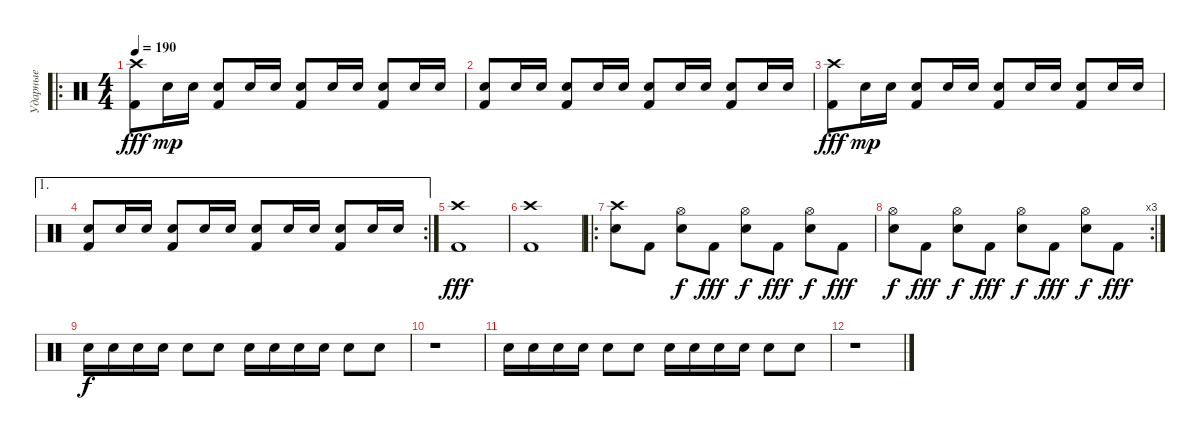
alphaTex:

\track ("Ударные" "Ударные") {instrument percussion}
\staff
\articulation defaults
\ro
\ts (4 4)
\tempo 190
\clef neutral
\ks c
("Kick (hit) 2" "Crash high (hit)").8{dy fff} "Snare (hit) 2".16{dy mp} "Snare (hit) 2".16 ("Kick (hit) 2" "Snare (hit) 2").8 "Snare (hit) 2".16 "Snare (hit) 2".16 ("Kick (hit) 2" "Snare (hit) 2").8 "Snare (hit) 2".16 "Snare (hit) 2".16 ("Kick (hit) 2" "Snare (hit) 2").8 "Snare (hit) 2".16 "Snare (hit) 2".16 |
("Kick (hit) 2" "Snare (hit) 2").8 "Snare (hit) 2".16 "Snare (hit) 2".16 ("Kick (hit) 2" "Snare (hit) 2").8 "Snare (hit) 2".16 "Snare (hit) 2".16 ("Kick (hit) 2" "Snare (hit) 2").8 "Snare (hit) 2".16 "Snare (hit) 2".16 ("Kick (hit) 2" "Snare (hit) 2").8 "Snare (hit) 2".16 "Snare (hit) 2".16 |
("Kick (hit) 2" "Crash high (hit)").8{dy fff} "Snare (hit) 2".16{dy mp} "Snare (hit) 2".16 ("Kick (hit) 2" "Snare (hit) 2").8 "Snare (hit) 2".16 "Snare (hit) 2".16 ("Kick (hit) 2" "Snare (hit) 2").8 "Snare (hit) 2".16 "Snare (hit) 2".16 ("Kick (hit) 2" "Snare (hit) 2").8 "Snare (hit) 2".16 "Snare (hit) 2".16 |
\ae 1
\rc 2
("Kick (hit) 2" "Snare (hit) 2").8 "Snare (hit) 2".16 "Snare (hit) 2".16 ("Kick (hit) 2" "Snare (hit) 2").8 "Snare (hit) 2".16 "Snare (hit) 2".16 ("Kick (hit) 2" "Snare (hit) 2").8 "Snare (hit) 2".16 "Snare (hit) 2".16 ("Kick (hit) 2" "Snare (hit) 2").8 "Snare (hit) 2".16 "Snare (hit) 2".16 |
("Kick (hit) 2" "Crash high (hit)").1{dy fff} |
("Kick (hit) 2" "Crash high (hit)").1 |
\ro
("Snare (hit) 2" "Crash high (hit)").8{volume 9} "Kick (hit) 2".8 ("Snare (hit) 2" "Hi-Hat (open)").8{dy f} "Kick (hit) 2".8{dy fff} ("Snare (hit) 2" "Hi-Hat (open)").8{dy f} "Kick (hit) 2".8{dy fff} ("Snare (hit) 2" "Hi-Hat (open)").8{dy f} "Kick (hit) 2".8{dy fff} |
\rc 3
("Snare (hit) 2" "Hi-Hat (open)").8{dy f} "Kick (hit) 2".8{dy fff} ("Snare (hit) 2" "Hi-Hat (open)").8{dy f} "Kick (hit) 2".8{dy fff} ("Snare (hit) 2" "Hi-Hat (open)").8{dy f} "Kick (hit) 2".8{dy fff} ("Snare (hit) 2" "Hi-Hat (open)").8{dy f} "Kick (hit) 2".8{dy fff} |
"Snare (hit) 2".16{dy f volume 9} "Electric Snare (hit)".16 "Electric Snare (hit)".16 "Electric Snare (hit)".16 "Electric Snare (hit)".8 "Snare (hit) 2".8 "Snare (hit) 2".16 "Electric Snare (hit)".16 "Electric Snare (hit)".16 "Electric Snare (hit)".16 "Electric Snare (hit)".8 "Snare (hit) 2".8 |
r.1 |
"Snare (hit) 2".16 "Electric Snare (hit)".16 "Electric Snare (hit)".16 "Electric Snare (hit)".16 "Electric Snare (hit)".8 "Snare (hit) 2".8 "Snare (hit) 2".16 "Electric Snare (hit)".16 "Electric Snare (hit)".16 "Electric Snare (hit)".16 "Electric Snare (hit)".8 "Snare (hit) 2".8 |
r.1
